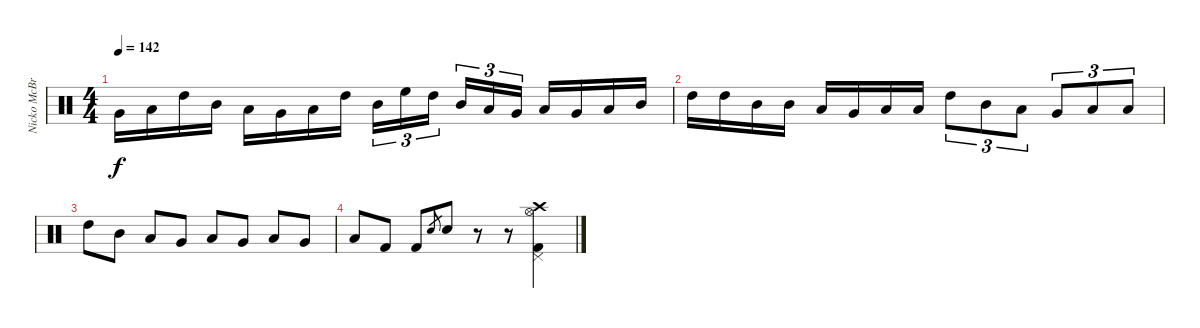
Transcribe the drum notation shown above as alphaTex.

\track ("Nicko McBrain" "Nicko McBr") {instrument percussion}
\staff {score}
\articulation defaults
\ts (4 4)
\tempo 142
\clef neutral
\ks c "Very Low Tom (hit)".16{dy f} "Low Floor Tom (hit)".16 "High Tom (hit)".16 "Mid Tom (hit)".16 "Low Tom (hit)".16 "Very Low Tom (hit)".16 "Low Tom (hit)".16 "High Tom (hit)".16 "Mid Tom (hit)".16{tu (3 2)} "High Floor Tom (hit)".16{tu (3 2)} "High Tom (hit)".16{tu (3 2) beam splitsecondary} "Mid Tom (hit)".16{tu (3 2)} "Low Tom (hit)".16{tu (3 2)} "Very Low Tom (hit)".16{tu (3 2)} "Low Floor Tom (hit)".16 "Very Low Tom (hit)".16 "Low Tom (hit)".16 "Mid Tom (hit)".16
|
"High Tom (hit)".16 "High Tom (hit)".16 "Mid Tom (hit)".16 "Mid Tom (hit)".16 "Low Tom (hit)".16 "Very Low Tom (hit)".16 "Low Floor Tom (hit)".16 "Low Floor Tom (hit)".16 "High Tom (hit)".8{tu (3 2)} "Mid Tom (hit)".8{tu (3 2)} "Low Tom (hit)".8{tu (3 2)} "Very Low Tom (hit)".8{tu (3 2)} "Low Floor Tom (hit)".8{tu (3 2)} "Low Tom (hit)".8{tu (3 2)} |
"High Tom (hit)".8 "Mid Tom (hit)".8 "Low Tom (hit)".8 "Very Low Tom (hit)".8 "Low Tom (hit)".8 "Very Low Tom (hit)".8 "Low Floor Tom (hit)".8 "Very Low Tom (hit)".8 |
"Low Floor Tom (hit)".8 "Kick (hit) 2".8 "Kick (hit) 2".8 "Snare (hit) 2".8{gr} "Snare (hit) 2".8 r.8 r.8 ("Kick (hit) 2" "Pedal Hi-Hat (hit)" "Hi-Hat (open)" "Crash high (hit)").4
